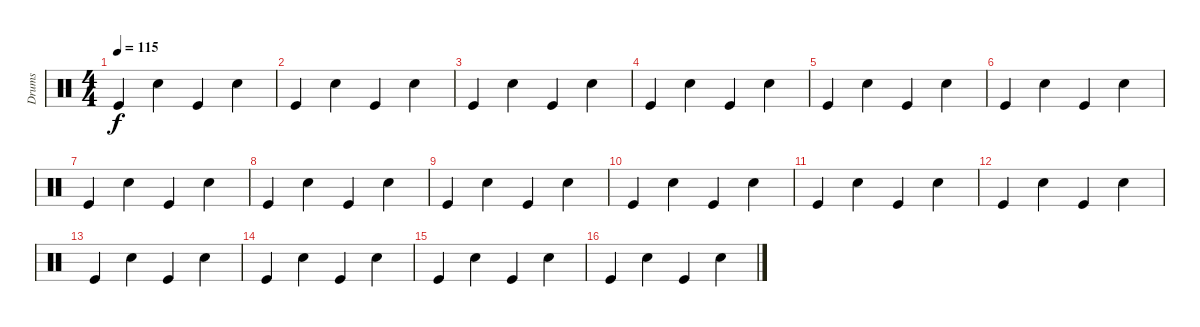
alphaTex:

\track ("Drums" "Drums") {instrument percussion}
\staff {score}
\articulation defaults
\ts (4 4)
\tempo 115
\clef neutral
\ks c "Kick (hit)".4{dy f} "Hand Clap (hit)".4 "Kick (hit)".4 "Hand Clap (hit)".4
|
"Kick (hit)".4 "Hand Clap (hit)".4 "Kick (hit)".4 "Hand Clap (hit)".4 |
"Kick (hit)".4 "Hand Clap (hit)".4 "Kick (hit)".4 "Hand Clap (hit)".4 |
"Kick (hit)".4 "Hand Clap (hit)".4 "Kick (hit)".4 "Hand Clap (hit)".4 |
"Kick (hit)".4 "Hand Clap (hit)".4 "Kick (hit)".4 "Hand Clap (hit)".4 |
"Kick (hit)".4 "Hand Clap (hit)".4 "Kick (hit)".4 "Hand Clap (hit)".4 |
"Kick (hit)".4 "Hand Clap (hit)".4 "Kick (hit)".4 "Hand Clap (hit)".4 |
"Kick (hit)".4 "Hand Clap (hit)".4 "Kick (hit)".4 "Hand Clap (hit)".4 |
"Kick (hit)".4 "Hand Clap (hit)".4 "Kick (hit)".4 "Hand Clap (hit)".4 |
"Kick (hit)".4 "Hand Clap (hit)".4 "Kick (hit)".4 "Hand Clap (hit)".4 |
"Kick (hit)".4 "Hand Clap (hit)".4 "Kick (hit)".4 "Hand Clap (hit)".4 |
"Kick (hit)".4 "Hand Clap (hit)".4 "Kick (hit)".4 "Hand Clap (hit)".4 |
"Kick (hit)".4 "Hand Clap (hit)".4 "Kick (hit)".4 "Hand Clap (hit)".4 |
"Kick (hit)".4 "Hand Clap (hit)".4 "Kick (hit)".4 "Hand Clap (hit)".4 |
"Kick (hit)".4 "Hand Clap (hit)".4 "Kick (hit)".4 "Hand Clap (hit)".4 |
"Kick (hit)".4 "Hand Clap (hit)".4 "Kick (hit)".4 "Hand Clap (hit)".4
